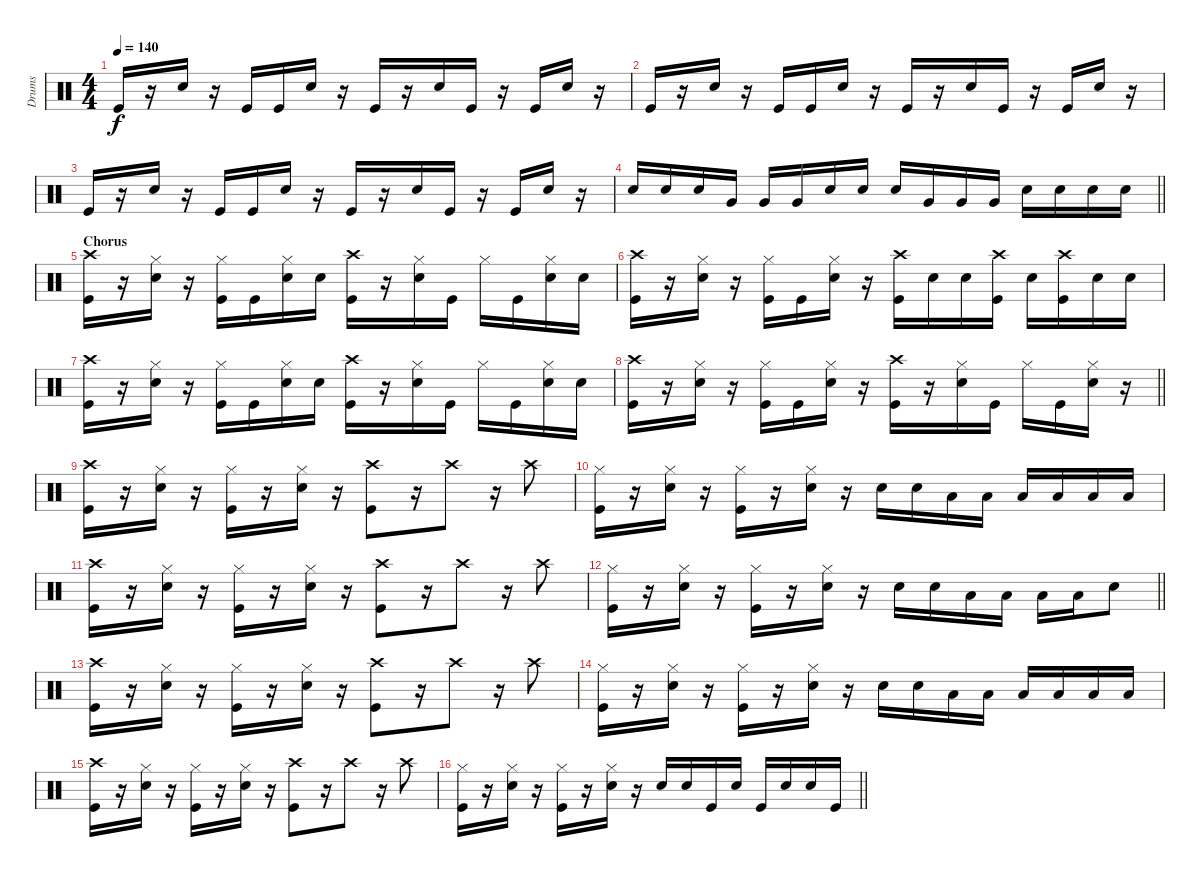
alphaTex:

\track ("Drums" "Drums") {instrument percussion}
\staff {score}
\articulation defaults
\ts (4 4)
\tempo 140
\clef neutral
\ks c "Kick (hit)".16{dy f}
r.16 "Snare (hit) 2".16 r.16 "Kick (hit)".16 "Kick (hit)".16 "Snare (hit) 2".16 r.16 "Kick (hit)".16 r.16 "Snare (hit) 2".16 "Kick (hit)".16 r.16 "Kick (hit)".16 "Snare (hit) 2".16 r.16 |
"Kick (hit)".16 r.16 "Snare (hit) 2".16 r.16 "Kick (hit)".16 "Kick (hit)".16 "Snare (hit) 2".16 r.16 "Kick (hit)".16 r.16 "Snare (hit) 2".16 "Kick (hit)".16 r.16 "Kick (hit)".16 "Snare (hit) 2".16 r.16 |
"Kick (hit)".16 r.16 "Snare (hit) 2".16 r.16 "Kick (hit)".16 "Kick (hit)".16 "Snare (hit) 2".16 r.16 "Kick (hit)".16 r.16 "Snare (hit) 2".16 "Kick (hit)".16 r.16 "Kick (hit)".16 "Snare (hit) 2".16 r.16 |
\barLineRight lightlight "Snare (hit) 2".16 "Snare (hit) 2".16 "Snare (hit) 2".16 "Very Low Tom (hit)".16 "Very Low Tom (hit)".16 "Very Low Tom (hit)".16 "Snare (hit) 2".16 "Snare (hit) 2".16 "Snare (hit) 2".16 "Very Low Tom (hit)".16 "Very Low Tom (hit)".16 "Very Low Tom (hit)".16 "Snare (hit) 2".16 "Snare (hit) 2".16 "Snare (hit) 2".16 "Snare (hit) 2".16
|
\section ("" "Chorus")
("Crash high (hit)" "Kick (hit)").16 r.16 ("Hi-Hat (closed)" "Snare (hit) 2").16 r.16 ("Hi-Hat (closed)" "Kick (hit)").16 "Kick (hit)".16 ("Hi-Hat (closed)" "Snare (hit) 2").16 "Snare (hit) 2".16 ("Crash high (hit)" "Kick (hit)").16 r.16 ("Hi-Hat (closed)" "Snare (hit) 2").16 "Kick (hit)".16 "Hi-Hat (closed)".16 "Kick (hit)".16 ("Hi-Hat (closed)" "Snare (hit) 2").16 "Snare (hit) 2".16 |
("Crash high (hit)" "Kick (hit)").16 r.16 ("Hi-Hat (closed)" "Snare (hit) 2").16 r.16 ("Hi-Hat (closed)" "Kick (hit)").16 "Kick (hit)".16 ("Hi-Hat (closed)" "Snare (hit) 2").16 r.16 ("Crash high (hit)" "Kick (hit)").16 "Snare (hit) 2".16 "Snare (hit) 2".16 ("Crash high (hit)" "Kick (hit)").16 "Snare (hit) 2".16 ("Crash high (hit)" "Kick (hit)").16 "Snare (hit) 2".16 "Snare (hit) 2".16 |
("Crash high (hit)" "Kick (hit)").16 r.16 ("Hi-Hat (closed)" "Snare (hit) 2").16 r.16 ("Hi-Hat (closed)" "Kick (hit)").16 "Kick (hit)".16 ("Hi-Hat (closed)" "Snare (hit) 2").16 "Snare (hit) 2".16 ("Crash high (hit)" "Kick (hit)").16 r.16 ("Hi-Hat (closed)" "Snare (hit) 2").16 "Kick (hit)".16 "Hi-Hat (closed)".16 "Kick (hit)".16 ("Hi-Hat (closed)" "Snare (hit) 2").16 "Snare (hit) 2".16 |
\barLineRight lightlight
("Crash high (hit)" "Kick (hit)").16 r.16 ("Hi-Hat (closed)" "Snare (hit) 2").16 r.16 ("Hi-Hat (closed)" "Kick (hit)").16 "Kick (hit)".16 ("Hi-Hat (closed)" "Snare (hit) 2").16 r.16 ("Crash high (hit)" "Kick (hit)").16 r.16 ("Hi-Hat (closed)" "Snare (hit) 2").16 "Kick (hit)".16 "Hi-Hat (closed)".16 "Kick (hit)".16 ("Hi-Hat (closed)" "Snare (hit) 2").16 r.16 |
("Crash high (hit)" "Kick (hit)").16 r.16 ("Hi-Hat (closed)" "Snare (hit) 2").16 r.16 ("Hi-Hat (closed)" "Kick (hit)").16 r.16 ("Hi-Hat (closed)" "Snare (hit) 2").16 r.16 ("Crash high (hit)" "Kick (hit)").8 r.16 "Crash high (hit)".8 r.16 "Crash high (hit)".8 |
("Hi-Hat (closed)" "Kick (hit)").16 r.16 ("Hi-Hat (closed)" "Snare (hit) 2").16 r.16 ("Hi-Hat (closed)" "Kick (hit)").16 r.16 ("Hi-Hat (closed)" "Snare (hit) 2").16 r.16 "Snare (hit) 2".16 "Snare (hit) 2".16 "Low Tom (hit)".16 "Low Tom (hit)".16 "Low Tom (hit)".16 "Low Tom (hit)".16 "Low Tom (hit)".16 "Low Tom (hit)".16 |
("Crash high (hit)" "Kick (hit)").16 r.16 ("Hi-Hat (closed)" "Snare (hit) 2").16 r.16 ("Hi-Hat (closed)" "Kick (hit)").16 r.16 ("Hi-Hat (closed)" "Snare (hit) 2").16 r.16 ("Crash high (hit)" "Kick (hit)").8 r.16 "Crash high (hit)".8 r.16 "Crash high (hit)".8 |
\barLineRight lightlight
("Hi-Hat (closed)" "Kick (hit)").16 r.16 ("Hi-Hat (closed)" "Snare (hit) 2").16 r.16 ("Hi-Hat (closed)" "Kick (hit)").16 r.16 ("Hi-Hat (closed)" "Snare (hit) 2").16 r.16 "Snare (hit) 2".16 "Snare (hit) 2".16 "Low Tom (hit)".16 "Low Tom (hit)".16 "Low Tom (hit)".16 "Low Tom (hit)".16 "Snare (hit) 2".8 |
("Crash high (hit)" "Kick (hit)").16 r.16 ("Hi-Hat (closed)" "Snare (hit) 2").16 r.16 ("Hi-Hat (closed)" "Kick (hit)").16 r.16 ("Hi-Hat (closed)" "Snare (hit) 2").16 r.16 ("Crash high (hit)" "Kick (hit)").8 r.16 "Crash high (hit)".8 r.16 "Crash high (hit)".8 |
("Hi-Hat (closed)" "Kick (hit)").16 r.16 ("Hi-Hat (closed)" "Snare (hit) 2").16 r.16 ("Hi-Hat (closed)" "Kick (hit)").16 r.16 ("Hi-Hat (closed)" "Snare (hit) 2").16 r.16 "Snare (hit) 2".16 "Snare (hit) 2".16 "Low Tom (hit)".16 "Low Tom (hit)".16 "Low Tom (hit)".16 "Low Tom (hit)".16 "Low Tom (hit)".16 "Low Tom (hit)".16 |
("Crash high (hit)" "Kick (hit)").16 r.16 ("Hi-Hat (closed)" "Snare (hit) 2").16 r.16 ("Hi-Hat (closed)" "Kick (hit)").16 r.16 ("Hi-Hat (closed)" "Snare (hit) 2").16 r.16 ("Crash high (hit)" "Kick (hit)").8 r.16 "Crash high (hit)".8 r.16 "Crash high (hit)".8 |
\barLineRight lightlight
("Hi-Hat (closed)" "Kick (hit)").16 r.16 ("Hi-Hat (closed)" "Snare (hit) 2").16 r.16 ("Hi-Hat (closed)" "Kick (hit)").16 r.16 ("Hi-Hat (closed)" "Snare (hit) 2").16 r.16 "Snare (hit) 2".16 "Snare (hit) 2".16 "Kick (hit)".16 "Snare (hit) 2".16 "Kick (hit)".16 "Snare (hit) 2".16 "Snare (hit) 2".16 "Kick (hit)".16
